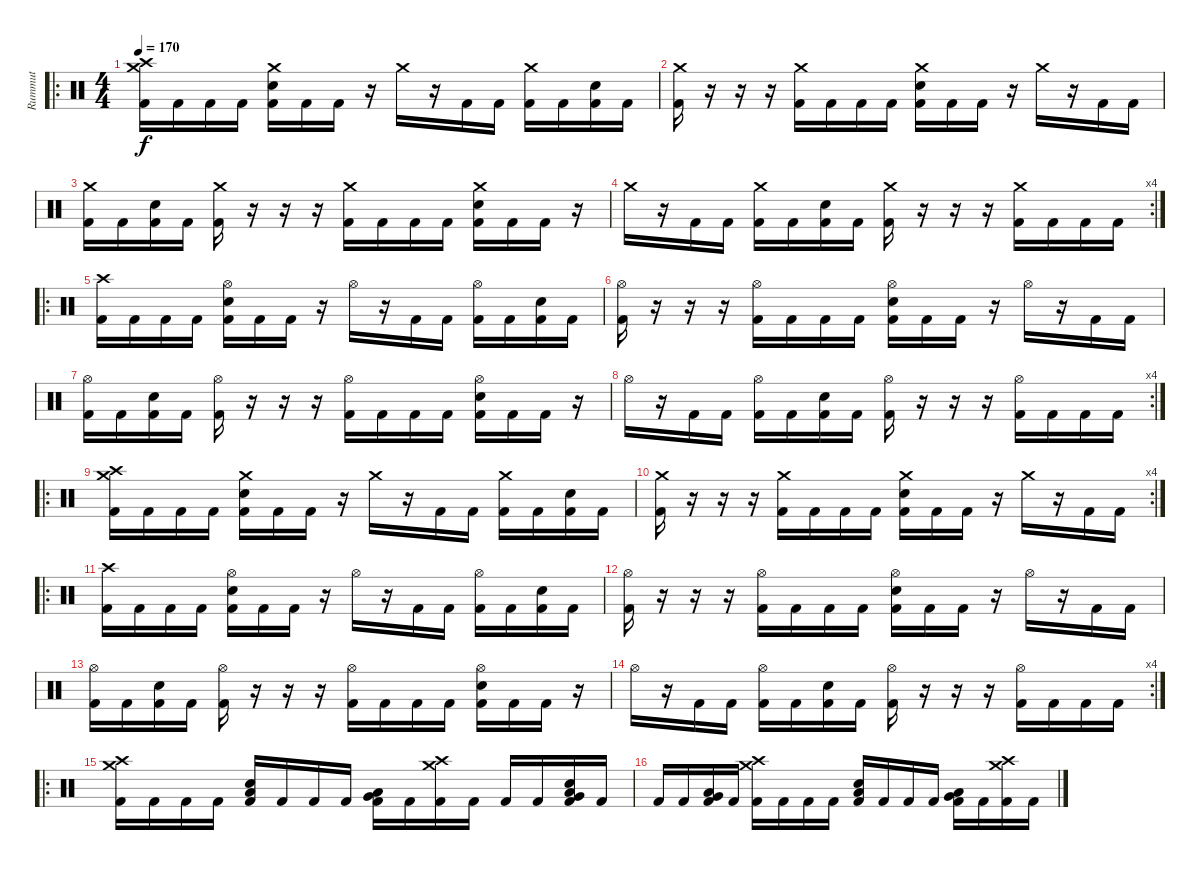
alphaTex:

\track ("Rummut" "Rummut") {instrument percussion}
\staff {score}
\articulation defaults
\ro
\ts (4 4)
\tempo 170
\clef neutral
\ks c
("Crash medium (hit)" "Crash high (hit)" "Kick (hit) 2").16{dy f} "Kick (hit) 2".16 "Kick (hit) 2".16 "Kick (hit) 2".16 ("Crash medium (hit)" "Electric Snare (hit)" "Kick (hit) 2").16 "Kick (hit) 2".16 "Kick (hit) 2".16 r.16 "Crash medium (hit)".16 r.16 "Kick (hit) 2".16 "Kick (hit) 2".16 ("Crash medium (hit)" "Kick (hit) 2").16 "Kick (hit) 2".16 ("Electric Snare (hit)" "Kick (hit) 2").16 "Kick (hit) 2".16 |
("Crash medium (hit)" "Kick (hit) 2").16 r.16 r.16 r.16 ("Crash medium (hit)" "Kick (hit) 2").16 "Kick (hit) 2".16 "Kick (hit) 2".16 "Kick (hit) 2".16 ("Crash medium (hit)" "Electric Snare (hit)" "Kick (hit) 2").16 "Kick (hit) 2".16 "Kick (hit) 2".16 r.16 "Crash medium (hit)".16 r.16 "Kick (hit) 2".16 "Kick (hit) 2".16 |
("Crash medium (hit)" "Kick (hit) 2").16 "Kick (hit) 2".16 ("Electric Snare (hit)" "Kick (hit) 2").16 "Kick (hit) 2".16 ("Crash medium (hit)" "Kick (hit) 2").16 r.16 r.16 r.16 ("Crash medium (hit)" "Kick (hit) 2").16 "Kick (hit) 2".16 "Kick (hit) 2".16 "Kick (hit) 2".16 ("Crash medium (hit)" "Electric Snare (hit)" "Kick (hit) 2").16 "Kick (hit) 2".16 "Kick (hit) 2".16 r.16 |
\rc 4 "Crash medium (hit)".16
r.16 "Kick (hit) 2".16 "Kick (hit) 2".16 ("Crash medium (hit)" "Kick (hit) 2").16 "Kick (hit) 2".16 ("Electric Snare (hit)" "Kick (hit) 2").16 "Kick (hit) 2".16 ("Crash medium (hit)" "Kick (hit) 2").16 r.16 r.16 r.16 ("Crash medium (hit)" "Kick (hit) 2").16 "Kick (hit) 2".16 "Kick (hit) 2".16 "Kick (hit) 2".16 |
\ro
("Crash high (hit)" "Kick (hit) 2").16 "Kick (hit) 2".16 "Kick (hit) 2".16 "Kick (hit) 2".16 ("Hi-Hat (open)" "Electric Snare (hit)" "Kick (hit) 2").16 "Kick (hit) 2".16 "Kick (hit) 2".16 r.16 "Hi-Hat (open)".16 r.16 "Kick (hit) 2".16 "Kick (hit) 2".16 ("Hi-Hat (open)" "Kick (hit) 2").16 "Kick (hit) 2".16 ("Electric Snare (hit)" "Kick (hit) 2").16 "Kick (hit) 2".16 |
("Hi-Hat (open)" "Kick (hit) 2").16 r.16 r.16 r.16 ("Hi-Hat (open)" "Kick (hit) 2").16 "Kick (hit) 2".16 "Kick (hit) 2".16 "Kick (hit) 2".16 ("Hi-Hat (open)" "Electric Snare (hit)" "Kick (hit) 2").16 "Kick (hit) 2".16 "Kick (hit) 2".16 r.16 "Hi-Hat (open)".16 r.16 "Kick (hit) 2".16 "Kick (hit) 2".16 |
("Hi-Hat (open)" "Kick (hit) 2").16 "Kick (hit) 2".16 ("Electric Snare (hit)" "Kick (hit) 2").16 "Kick (hit) 2".16 ("Hi-Hat (open)" "Kick (hit) 2").16 r.16 r.16 r.16 ("Hi-Hat (open)" "Kick (hit) 2").16 "Kick (hit) 2".16 "Kick (hit) 2".16 "Kick (hit) 2".16 ("Hi-Hat (open)" "Electric Snare (hit)" "Kick (hit) 2").16 "Kick (hit) 2".16 "Kick (hit) 2".16 r.16 |
\rc 4 "Hi-Hat (open)".16
r.16 "Kick (hit) 2".16 "Kick (hit) 2".16 ("Hi-Hat (open)" "Kick (hit) 2").16 "Kick (hit) 2".16 ("Electric Snare (hit)" "Kick (hit) 2").16 "Kick (hit) 2".16 ("Hi-Hat (open)" "Kick (hit) 2").16 r.16 r.16 r.16 ("Hi-Hat (open)" "Kick (hit) 2").16 "Kick (hit) 2".16 "Kick (hit) 2".16 "Kick (hit) 2".16 |
\ro
("Crash medium (hit)" "Crash high (hit)" "Kick (hit) 2").16 "Kick (hit) 2".16 "Kick (hit) 2".16 "Kick (hit) 2".16 ("Crash medium (hit)" "Electric Snare (hit)" "Kick (hit) 2").16 "Kick (hit) 2".16 "Kick (hit) 2".16 r.16 "Crash medium (hit)".16 r.16 "Kick (hit) 2".16 "Kick (hit) 2".16 ("Crash medium (hit)" "Kick (hit) 2").16 "Kick (hit) 2".16 ("Electric Snare (hit)" "Kick (hit) 2").16 "Kick (hit) 2".16 |
\rc 4
("Crash medium (hit)" "Kick (hit) 2").16 r.16 r.16 r.16 ("Crash medium (hit)" "Kick (hit) 2").16 "Kick (hit) 2".16 "Kick (hit) 2".16 "Kick (hit) 2".16 ("Crash medium (hit)" "Electric Snare (hit)" "Kick (hit) 2").16 "Kick (hit) 2".16 "Kick (hit) 2".16 r.16 "Crash medium (hit)".16 r.16 "Kick (hit) 2".16 "Kick (hit) 2".16 |
\ro
("Crash high (hit)" "Kick (hit) 2").16 "Kick (hit) 2".16 "Kick (hit) 2".16 "Kick (hit) 2".16 ("Hi-Hat (open)" "Electric Snare (hit)" "Kick (hit) 2").16 "Kick (hit) 2".16 "Kick (hit) 2".16 r.16 "Hi-Hat (open)".16 r.16 "Kick (hit) 2".16 "Kick (hit) 2".16 ("Hi-Hat (open)" "Kick (hit) 2").16 "Kick (hit) 2".16 ("Electric Snare (hit)" "Kick (hit) 2").16 "Kick (hit) 2".16 |
("Hi-Hat (open)" "Kick (hit) 2").16 r.16 r.16 r.16 ("Hi-Hat (open)" "Kick (hit) 2").16 "Kick (hit) 2".16 "Kick (hit) 2".16 "Kick (hit) 2".16 ("Hi-Hat (open)" "Electric Snare (hit)" "Kick (hit) 2").16 "Kick (hit) 2".16 "Kick (hit) 2".16 r.16 "Hi-Hat (open)".16 r.16 "Kick (hit) 2".16 "Kick (hit) 2".16 |
("Hi-Hat (open)" "Kick (hit) 2").16 "Kick (hit) 2".16 ("Electric Snare (hit)" "Kick (hit) 2").16 "Kick (hit) 2".16 ("Hi-Hat (open)" "Kick (hit) 2").16 r.16 r.16 r.16 ("Hi-Hat (open)" "Kick (hit) 2").16 "Kick (hit) 2".16 "Kick (hit) 2".16 "Kick (hit) 2".16 ("Hi-Hat (open)" "Electric Snare (hit)" "Kick (hit) 2").16 "Kick (hit) 2".16 "Kick (hit) 2".16 r.16 |
\rc 4 "Hi-Hat (open)".16
r.16 "Kick (hit) 2".16 "Kick (hit) 2".16 ("Hi-Hat (open)" "Kick (hit) 2").16 "Kick (hit) 2".16 ("Electric Snare (hit)" "Kick (hit) 2").16 "Kick (hit) 2".16 ("Hi-Hat (open)" "Kick (hit) 2").16 r.16 r.16 r.16 ("Hi-Hat (open)" "Kick (hit) 2").16 "Kick (hit) 2".16 "Kick (hit) 2".16 "Kick (hit) 2".16 |
\ro
("Crash medium (hit)" "Crash high (hit)" "Kick (hit) 2").16 "Kick (hit) 2".16 "Kick (hit) 2".16 "Kick (hit) 2".16 ("Low Floor Tom (hit)" "Electric Snare (hit)" "Kick (hit) 2").16 "Kick (hit) 2".16 "Kick (hit) 2".16 "Kick (hit) 2".16 ("Very Low Tom (hit)" "Low Floor Tom (hit)" "Kick (hit) 2").16 "Kick (hit) 2".16 ("Crash medium (hit)" "Crash high (hit)" "Kick (hit) 2").16 "Kick (hit) 2".16 "Kick (hit) 2".16 "Kick (hit) 2".16 ("Very Low Tom (hit)" "Low Floor Tom (hit)" "Electric Snare (hit)" "Kick (hit) 2").16 "Kick (hit) 2".16 |
"Kick (hit) 2".16 "Kick (hit) 2".16 ("Very Low Tom (hit)" "Low Floor Tom (hit)" "Kick (hit) 2").16 "Kick (hit) 2".16 ("Crash medium (hit)" "Crash high (hit)" "Kick (hit) 2").16 "Kick (hit) 2".16 "Kick (hit) 2".16 "Kick (hit) 2".16 ("Low Floor Tom (hit)" "Electric Snare (hit)" "Kick (hit) 2").16 "Kick (hit) 2".16 "Kick (hit) 2".16 "Kick (hit) 2".16 ("Very Low Tom (hit)" "Low Floor Tom (hit)" "Kick (hit) 2").16 "Kick (hit) 2".16 ("Crash medium (hit)" "Crash high (hit)" "Kick (hit) 2").16 "Kick (hit) 2".16
